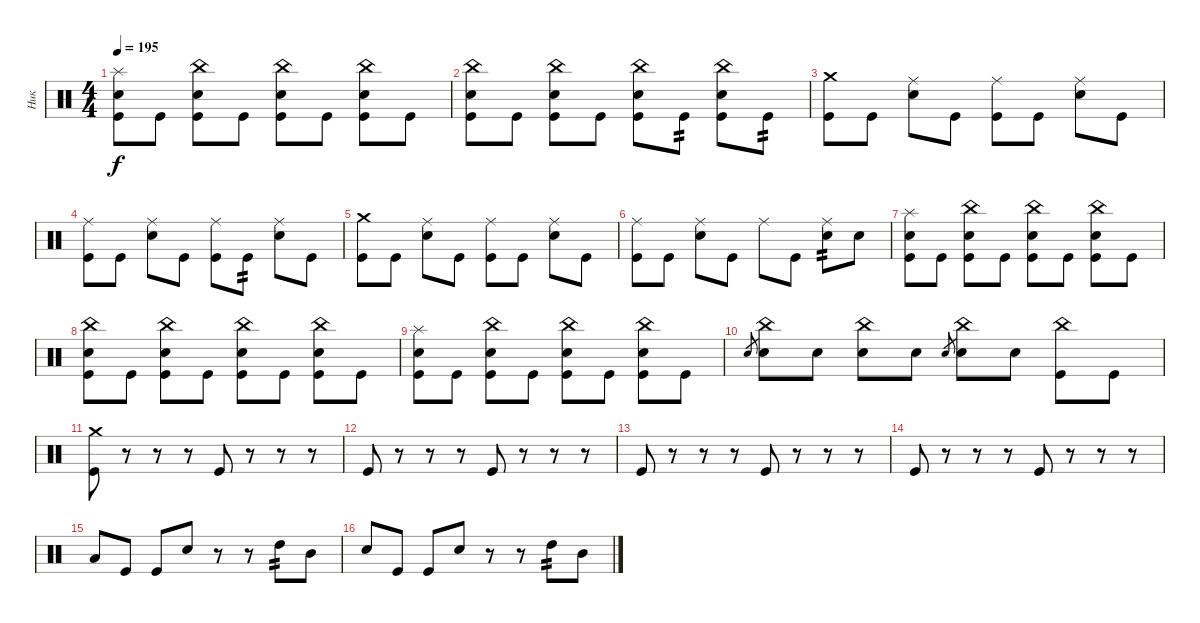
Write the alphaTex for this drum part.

\track ("Ник" "Ник") {instrument percussion}
\staff {score}
\articulation defaults
\ts (4 4)
\tempo 195
\clef neutral
\ks c
("Splash (hit)" "Snare (hit) 2" "Kick (hit)").8{dy f} "Kick (hit)".8 ("China (hit)" "Snare (hit) 2" "Kick (hit)").8 "Kick (hit)".8 ("China (hit)" "Snare (hit) 2" "Kick (hit)").8 "Kick (hit)".8 ("China (hit)" "Snare (hit) 2" "Kick (hit)").8 "Kick (hit)".8 |
("China (hit)" "Snare (hit) 2" "Kick (hit)").8 "Kick (hit)".8 ("China (hit)" "Snare (hit) 2" "Kick (hit)").8 "Kick (hit)".8 ("China (hit)" "Snare (hit) 2" "Kick (hit)").8 "Kick (hit)".8{tp 2} ("China (hit)" "Snare (hit) 2" "Kick (hit)").8 "Kick (hit)".8{tp 2} |
("Crash medium (hit)" "Kick (hit)").8 "Kick (hit)".8 ("Ride (middle)" "Snare (hit) 2").8 "Kick (hit)".8 ("Ride (middle)" "Kick (hit)").8 "Kick (hit)".8 ("Ride (middle)" "Snare (hit) 2").8 "Kick (hit)".8 |
("Ride (middle)" "Kick (hit)").8 "Kick (hit)".8 ("Ride (middle)" "Snare (hit) 2").8 "Kick (hit)".8 ("Ride (middle)" "Kick (hit)").8 "Kick (hit)".8{tp 2} ("Ride (middle)" "Snare (hit) 2").8 "Kick (hit)".8 |
("Crash medium (hit)" "Kick (hit)").8 "Kick (hit)".8 ("Ride (middle)" "Snare (hit) 2").8 "Kick (hit)".8 ("Ride (middle)" "Kick (hit)").8 "Kick (hit)".8 ("Ride (middle)" "Snare (hit) 2").8 "Kick (hit)".8 |
("Ride (middle)" "Kick (hit)").8 "Kick (hit)".8 ("Ride (middle)" "Snare (hit) 2").8 "Kick (hit)".8 "Ride (middle)".8 "Kick (hit)".8 ("Ride (middle)" "Snare (hit) 2").8{tp 2} "Snare (hit) 2".8 |
("Splash (hit)" "Snare (hit) 2" "Kick (hit)").8 "Kick (hit)".8 ("China (hit)" "Snare (hit) 2" "Kick (hit)").8 "Kick (hit)".8 ("China (hit)" "Snare (hit) 2" "Kick (hit)").8 "Kick (hit)".8 ("China (hit)" "Snare (hit) 2" "Kick (hit)").8 "Kick (hit)".8 |
("China (hit)" "Snare (hit) 2" "Kick (hit)").8 "Kick (hit)".8 ("China (hit)" "Snare (hit) 2" "Kick (hit)").8 "Kick (hit)".8 ("China (hit)" "Snare (hit) 2" "Kick (hit)").8 "Kick (hit)".8 ("China (hit)" "Snare (hit) 2" "Kick (hit)").8 "Kick (hit)".8 |
("Splash (hit)" "Snare (hit) 2" "Kick (hit)").8 "Kick (hit)".8 ("China (hit)" "Snare (hit) 2" "Kick (hit)").8 "Kick (hit)".8 ("China (hit)" "Snare (hit) 2" "Kick (hit)").8 "Kick (hit)".8 ("China (hit)" "Snare (hit) 2" "Kick (hit)").8 "Kick (hit)".8 |
"Snare (hit) 2".8{gr} ("China (hit)" "Snare (hit) 2").8 "Snare (hit) 2".8 ("China (hit)" "Snare (hit) 2").8 "Snare (hit) 2".8 "Snare (hit) 2".8{gr} ("China (hit)" "Snare (hit) 2").8 "Snare (hit) 2".8 ("China (hit)" "Kick (hit)").8 "Kick (hit)".8 |
("Crash medium (hit)" "Kick (hit)").8 r.8 r.8 r.8 "Kick (hit)".8 r.8 r.8 r.8 |
"Kick (hit)".8 r.8 r.8 r.8 "Kick (hit)".8 r.8 r.8 r.8 |
"Kick (hit)".8 r.8 r.8 r.8 "Kick (hit)".8 r.8 r.8 r.8 |
"Kick (hit)".8 r.8 r.8 r.8 "Kick (hit)".8 r.8 r.8 r.8 |
"Low Tom (hit)".8 "Kick (hit)".8 "Kick (hit)".8 "Snare (hit) 2".8 r.8 r.8 "High Tom (hit)".8{tp 2} "Mid Tom (hit)".8 |
"Snare (hit) 2".8 "Kick (hit)".8 "Kick (hit)".8 "Snare (hit) 2".8 r.8 r.8 "High Tom (hit)".8{tp 2} "Mid Tom (hit)".8
